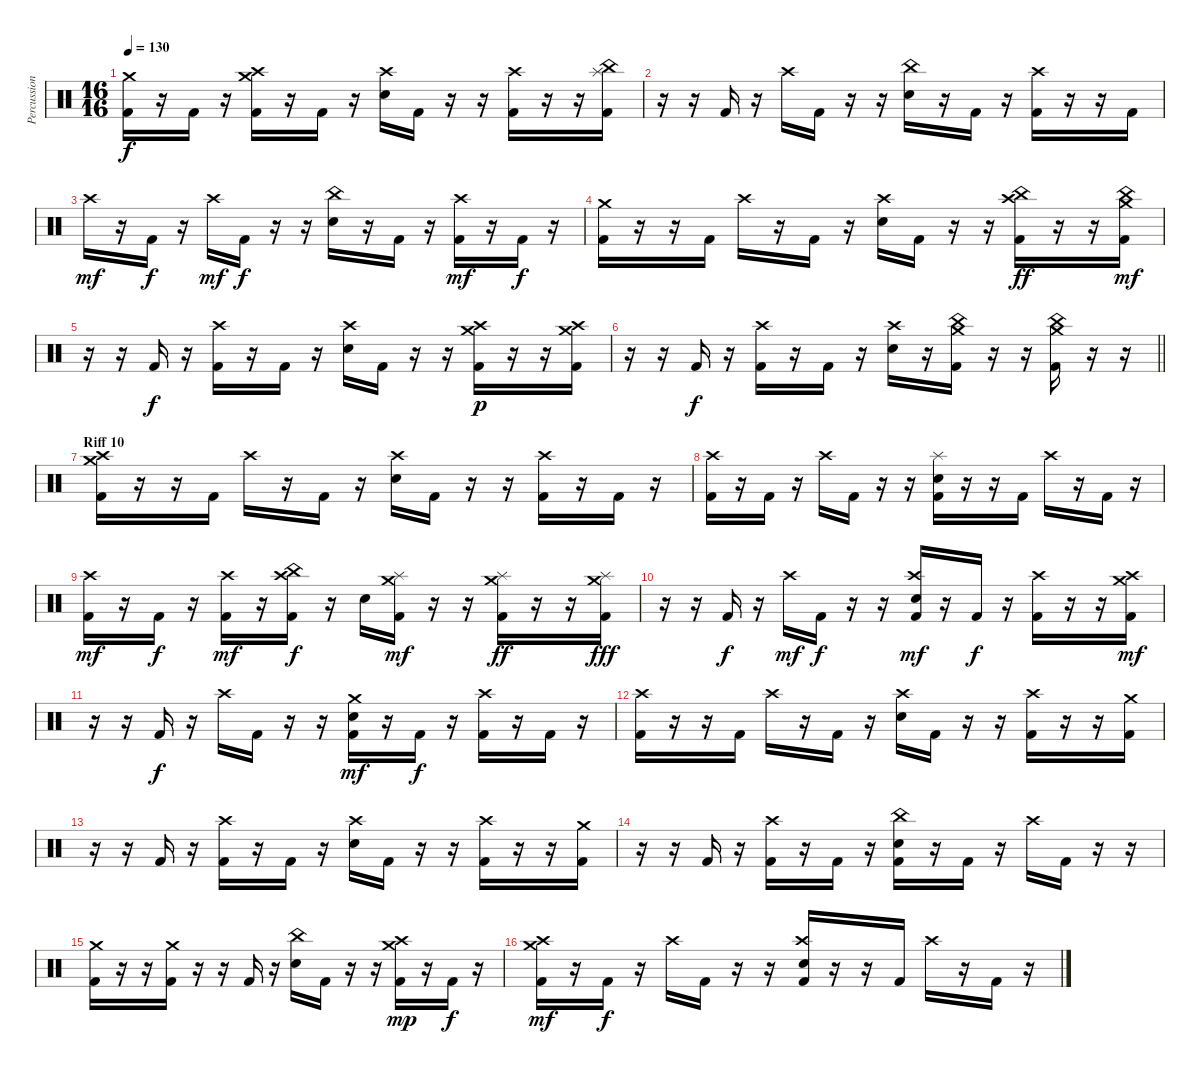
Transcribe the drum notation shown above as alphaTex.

\track ("Percussions" "Percussion") {instrument percussion}
\staff {score}
\articulation defaults
\ts (16 16)
\tempo 130
\clef neutral
\ks c
("Crash medium (hit)" "Kick (hit) 2").16{dy f} r.16 "Kick (hit) 2".16 r.16 ("Crash medium (hit)" "Crash high (hit)" "Kick (hit) 2").16 r.16 "Kick (hit) 2".16 r.16 ("Crash high (hit)" "Electric Snare (hit)").16 "Kick (hit) 2".16 r.16 r.16 ("Crash high (hit)" "Kick (hit) 2").16 r.16 r.16 ("China (hit)" "Splash (hit)" "Kick (hit) 2").16 |
r.16 r.16 "Kick (hit) 2".16 r.16 "Crash high (hit)".16 "Kick (hit) 2".16 r.16 r.16 ("China (hit)" "Electric Snare (hit)").16 r.16 "Kick (hit) 2".16 r.16 ("Crash high (hit)" "Kick (hit) 2").16 r.16 r.16 "Kick (hit) 2".16 |
"Crash high (hit)".16{dy mf} r.16 "Kick (hit) 2".16{dy f} r.16 "Crash high (hit)".16{dy mf} "Kick (hit) 2".16{dy f} r.16 r.16 ("China (hit)" "Electric Snare (hit)").16 r.16 "Kick (hit) 2".16 r.16 ("Crash high (hit)" "Kick (hit) 2").16{dy mf} r.16 "Kick (hit) 2".16{dy f} r.16 |
("Crash medium (hit)" "Kick (hit) 2").16 r.16 r.16 "Kick (hit) 2".16 "Crash high (hit)".16 r.16 "Kick (hit) 2".16 r.16 ("Crash high (hit)" "Electric Snare (hit)").16 "Kick (hit) 2".16 r.16 r.16 ("Crash high (hit)" "China (hit)" "Kick (hit) 2").16{dy ff} r.16 r.16 ("Crash medium (hit)" "China (hit)" "Kick (hit) 2").16{dy mf} |
r.16 r.16 "Kick (hit) 2".16{dy f} r.16 ("Crash high (hit)" "Kick (hit) 2").16 r.16 "Kick (hit) 2".16 r.16 ("Crash high (hit)" "Electric Snare (hit)").16 "Kick (hit) 2".16 r.16 r.16 ("Crash medium (hit)" "Crash high (hit)" "Kick (hit) 2").16{dy p} r.16 r.16 ("Crash medium (hit)" "Crash high (hit)" "Kick (hit) 2").16 |
\barLineRight lightlight
r.16 r.16 "Kick (hit) 2".16{dy f} r.16 ("Crash high (hit)" "Kick (hit) 2").16 r.16 "Kick (hit) 2".16 r.16 ("Crash high (hit)" "Electric Snare (hit)").16 r.16 ("China (hit)" "Crash medium (hit)" "Kick (hit) 2").16 r.16 r.16 ("China (hit)" "Crash medium (hit)" "Kick (hit) 2").16 r.16 r.16 |
\section ("" "Riff 10")
("Crash high (hit)" "Crash medium (hit)" "Kick (hit) 2").16 r.16 r.16 "Kick (hit) 2".16 "Crash high (hit)".16 r.16 "Kick (hit) 2".16 r.16 ("Crash high (hit)" "Electric Snare (hit)").16 "Kick (hit) 2".16 r.16 r.16 ("Crash high (hit)" "Kick (hit) 2").16 r.16 "Kick (hit) 2".16 r.16 |
("Crash high (hit)" "Kick (hit) 2").16 r.16 "Kick (hit) 2".16 r.16 "Crash high (hit)".16 "Kick (hit) 2".16 r.16 r.16 ("Splash (hit)" "Electric Snare (hit)" "Kick (hit) 2").16 r.16 r.16 "Kick (hit) 2".16 "Crash high (hit)".16 r.16 "Kick (hit) 2".16 r.16 |
("Crash high (hit)" "Kick (hit) 2").16{dy mf} r.16 "Kick (hit) 2".16{dy f} r.16 ("Crash high (hit)" "Kick (hit) 2").16{dy mf} r.16 ("Crash high (hit)" "China (hit)" "Kick (hit) 2").16{dy f} r.16 "Electric Snare (hit)".16 ("Crash medium (hit)" "Splash (hit)" "Kick (hit) 2").16{dy mf} r.16 r.16 ("Crash medium (hit)" "Splash (hit)" "Kick (hit) 2").16{dy ff} r.16 r.16 ("Crash medium (hit)" "Splash (hit)" "Kick (hit) 2").16{dy fff} |
r.16 r.16 "Kick (hit) 2".16{dy f} r.16 "Crash high (hit)".16{dy mf} "Kick (hit) 2".16{dy f} r.16 r.16 ("Crash high (hit)" "Electric Snare (hit)" "Kick (hit) 2").16{dy mf} r.16 "Kick (hit) 2".16{dy f} r.16 ("Crash high (hit)" "Kick (hit) 2").16 r.16 r.16 ("Crash medium (hit)" "Crash high (hit)" "Kick (hit) 2").16{dy mf} |
r.16 r.16 "Kick (hit) 2".16{dy f} r.16 "Crash high (hit)".16 "Kick (hit) 2".16 r.16 r.16 ("Crash medium (hit)" "Electric Snare (hit)" "Kick (hit) 2").16{dy mf} r.16 "Kick (hit) 2".16{dy f} r.16 ("Crash high (hit)" "Kick (hit) 2").16 r.16 "Kick (hit) 2".16 r.16 |
("Crash high (hit)" "Kick (hit) 2").16 r.16 r.16 "Kick (hit) 2".16 "Crash high (hit)".16 r.16 "Kick (hit) 2".16 r.16 ("Crash high (hit)" "Electric Snare (hit)").16 "Kick (hit) 2".16 r.16 r.16 ("Crash high (hit)" "Kick (hit) 2").16 r.16 r.16 ("Crash medium (hit)" "Kick (hit) 2").16 |
r.16 r.16 "Kick (hit) 2".16 r.16 ("Crash high (hit)" "Kick (hit) 2").16 r.16 "Kick (hit) 2".16 r.16 ("Crash high (hit)" "Electric Snare (hit)").16 "Kick (hit) 2".16 r.16 r.16 ("Crash high (hit)" "Kick (hit) 2").16 r.16 r.16 ("Crash medium (hit)" "Kick (hit) 2").16 |
r.16 r.16 "Kick (hit) 2".16 r.16 ("Crash high (hit)" "Kick (hit) 2").16 r.16 "Kick (hit) 2".16 r.16 ("China (hit)" "Electric Snare (hit)" "Kick (hit) 2").16 r.16 "Kick (hit) 2".16 r.16 "Crash high (hit)".16 "Kick (hit) 2".16 r.16 r.16 |
("Crash medium (hit)" "Kick (hit) 2").16 r.16 r.16 ("Crash medium (hit)" "Kick (hit) 2").16 r.16 r.16 "Kick (hit) 2".16 r.16 ("China (hit)" "Electric Snare (hit)").16 "Kick (hit) 2".16 r.16 r.16 ("Crash medium (hit)" "Crash high (hit)" "Kick (hit) 2").16{dy mp} r.16 "Kick (hit) 2".16{dy f} r.16 |
("Crash high (hit)" "Crash medium (hit)" "Kick (hit) 2").16{dy mf} r.16 "Kick (hit) 2".16{dy f} r.16 "Crash high (hit)".16 "Kick (hit) 2".16 r.16 r.16 ("Crash high (hit)" "Electric Snare (hit)" "Kick (hit) 2").16 r.16 r.16 "Kick (hit) 2".16 "Crash high (hit)".16 r.16 "Kick (hit) 2".16 r.16
